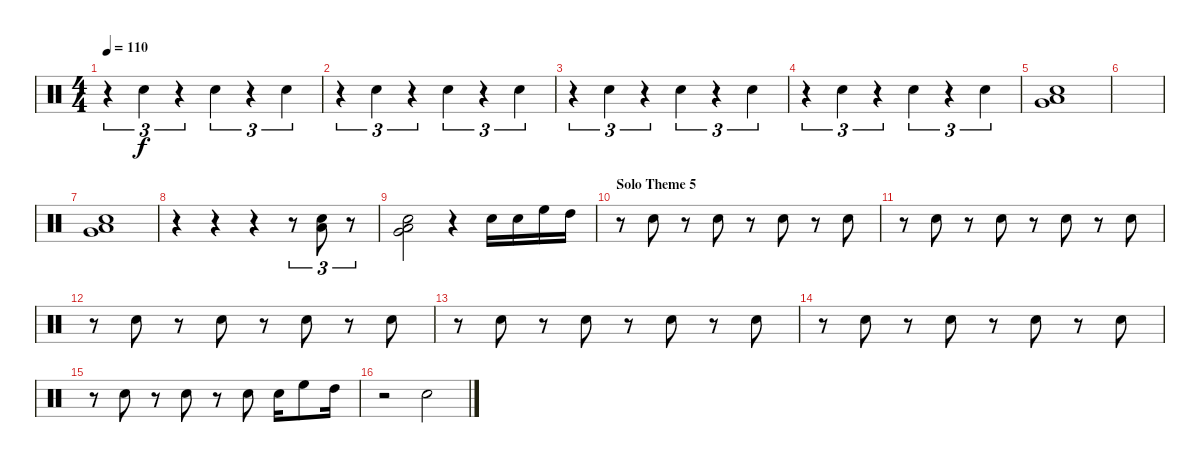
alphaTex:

\track "" {instrument percussion}
\staff {score}
\articulation defaults
\ts (4 4)
\tempo 110
\clef neutral
\ks c
r.4{tu (3 2) dy f} "Electric Snare (hit)".4{tu (3 2)} r.4{tu (3 2)} "Electric Snare (hit)".4{tu (3 2)} r.4{tu (3 2)} "Electric Snare (hit)".4{tu (3 2)} |
r.4{tu (3 2)} "Electric Snare (hit)".4{tu (3 2)} r.4{tu (3 2)} "Electric Snare (hit)".4{tu (3 2)} r.4{tu (3 2)} "Electric Snare (hit)".4{tu (3 2)} |
r.4{tu (3 2)} "Electric Snare (hit)".4{tu (3 2)} r.4{tu (3 2)} "Electric Snare (hit)".4{tu (3 2)} r.4{tu (3 2)} "Electric Snare (hit)".4{tu (3 2)} |
r.4{tu (3 2)} "Electric Snare (hit)".4{tu (3 2)} r.4{tu (3 2)} "Electric Snare (hit)".4{tu (3 2)} r.4{tu (3 2)} "Electric Snare (hit)".4{tu (3 2)} |
("Very Low Tom (hit)" "Low Tom (hit)" "Electric Snare (hit)").1 |
|
("Very Low Tom (hit)" "Low Tom (hit)" "Electric Snare (hit)").1 |
r.4 r.4 r.4 r.8{tu (3 2)} ("Low Tom (hit)" "Electric Snare (hit)").8{tu (3 2)} r.8{tu (3 2)} |
("Very Low Tom (hit)" "Low Tom (hit)" "Electric Snare (hit)").2 r.4 "Electric Snare (hit)".16 "Electric Snare (hit)".16 "High Floor Tom (hit)".16 "High Tom (hit)".16 |
\section ("" "Solo Theme 5")
r.8 "Electric Snare (hit)".8 r.8 "Electric Snare (hit)".8 r.8 "Electric Snare (hit)".8 r.8 "Electric Snare (hit)".8 |
r.8 "Electric Snare (hit)".8 r.8 "Electric Snare (hit)".8 r.8 "Electric Snare (hit)".8 r.8 "Electric Snare (hit)".8 |
r.8 "Electric Snare (hit)".8 r.8 "Electric Snare (hit)".8 r.8 "Electric Snare (hit)".8 r.8 "Electric Snare (hit)".8 |
r.8 "Electric Snare (hit)".8 r.8 "Electric Snare (hit)".8 r.8 "Electric Snare (hit)".8 r.8 "Electric Snare (hit)".8 |
r.8 "Electric Snare (hit)".8 r.8 "Electric Snare (hit)".8 r.8 "Electric Snare (hit)".8 r.8 "Electric Snare (hit)".8 |
r.8 "Electric Snare (hit)".8 r.8 "Electric Snare (hit)".8 r.8 "Electric Snare (hit)".8 "Electric Snare (hit)".16 "High Floor Tom (hit)".8 "High Tom (hit)".16 |
r.2 "Electric Snare (hit)".2
